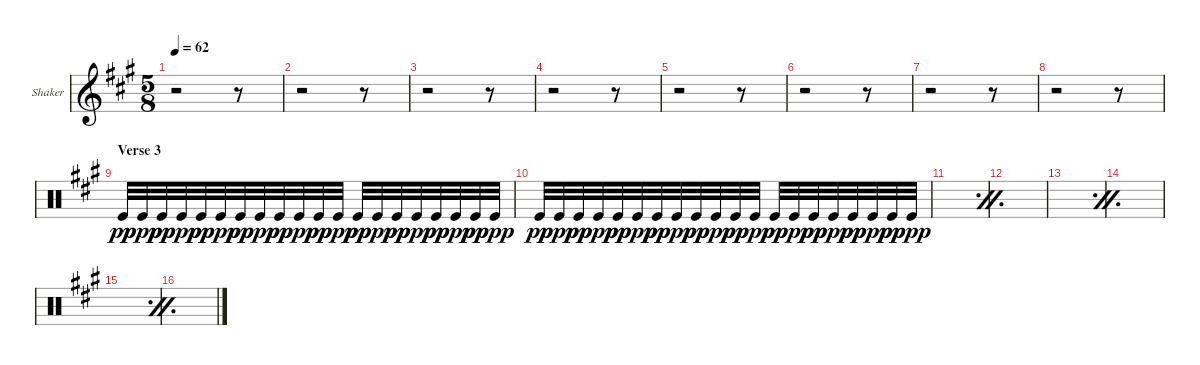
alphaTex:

\defaultSystemsLayout 4
\bracketExtendMode groupsimilarinstruments
\firstSystemTrackNameOrientation horizontal
\otherSystemsTrackNameOrientation horizontal
\track ("Shaker" "Shaker") {instrument percussion}
\staff {score}
\articulation defaults
\ts (5 8)
\tempo 62
\clef g2
\scale
0.333333
\ks f#minor
r.2{dy pp} r.8 |
\scale
0.333333 r.2 r.8 |
\scale
0.333333 r.2 r.8 |
\scale
0.333333 r.2 r.8 |
\scale
0.333333 r.2 r.8 |
\scale
0.333333 r.2 r.8 |
\scale
0.333333 r.2 r.8 |
\scale
0.333333 r.2 r.8 |
\section ("" "Verse 3")
\clef neutral
\scale
0.333333 "Kick (hit)".32 "Kick (hit)".32{dy ppp} "Kick (hit)".32{dy pp} "Kick (hit)".32{dy ppp} "Kick (hit)".32{dy pp} "Kick (hit)".32{dy ppp} "Kick (hit)".32{dy pp} "Kick (hit)".32{dy ppp} "Kick (hit)".32{dy pp} "Kick (hit)".32{dy ppp} "Kick (hit)".32{dy pp} "Kick (hit)".32{dy ppp} "Kick (hit)".32{dy pp} "Kick (hit)".32{dy ppp} "Kick (hit)".32{dy pp} "Kick (hit)".32{dy ppp} "Kick (hit)".32{dy pp} "Kick (hit)".32{dy ppp} "Kick (hit)".32{dy pp} "Kick (hit)".32{dy ppp} |
\scale
0.333333 "Kick (hit)".32{dy pp} "Kick (hit)".32{dy ppp} "Kick (hit)".32{dy pp} "Kick (hit)".32{dy ppp} "Kick (hit)".32{dy pp} "Kick (hit)".32{dy ppp} "Kick (hit)".32{dy pp} "Kick (hit)".32{dy ppp} "Kick (hit)".32{dy pp} "Kick (hit)".32{dy ppp} "Kick (hit)".32{dy pp} "Kick (hit)".32{dy ppp} "Kick (hit)".32{dy pp} "Kick (hit)".32{dy ppp} "Kick (hit)".32{dy pp} "Kick (hit)".32{dy ppp} "Kick (hit)".32{dy pp} "Kick (hit)".32{dy ppp} "Kick (hit)".32{dy pp} "Kick (hit)".32{dy ppp} |
\simile firstofdouble
\scale
0.333333 |
\simile secondofdouble
\scale
0.333333 |
\simile firstofdouble
\scale
0.333333 |
\simile secondofdouble
\scale
0.333333 |
\simile firstofdouble
\scale
0.333333 |
\simile secondofdouble
\scale
0.333333
